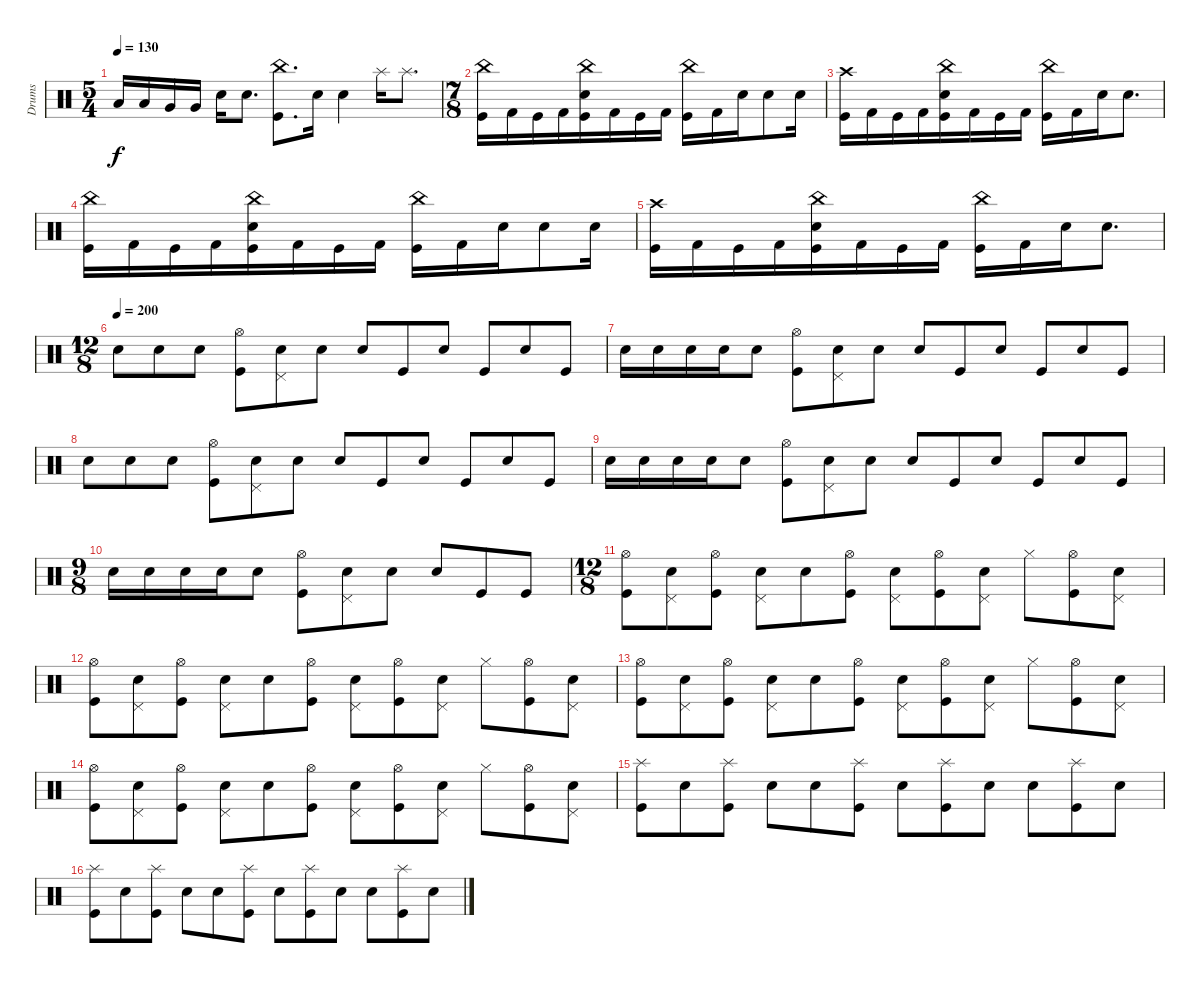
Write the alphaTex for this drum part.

\track ("Drums" "Drums") {instrument percussion}
\staff {score}
\articulation defaults
\ts (5 4)
\tempo 130
\clef neutral
\ks c "Low Tom (hit)".16{dy f} "Low Tom (hit)".16 "Very Low Tom (hit)".16 "Very Low Tom (hit)".16 "Snare (hit) 2".16 "Snare (hit) 2".8{d}
("China (hit)" "Kick (hit)").8{d} "Snare (hit) 2".16 "Snare (hit) 2".4 "Splash (hit)".16 "Splash (hit)".8{d} |
\ts (7 8)
("China (hit)" "Kick (hit)").16 "Kick (hit) 2".16 "Kick (hit)".16 "Kick (hit) 2".16 ("China (hit)" "Kick (hit)" "Snare (hit) 2").16 "Kick (hit) 2".16 "Kick (hit)".16 "Kick (hit) 2".16 ("China (hit)" "Kick (hit)").16 "Kick (hit) 2".16 "Snare (hit) 2".16 "Snare (hit) 2".8 "Snare (hit) 2".16 |
("Crash high (hit)" "Kick (hit)").16 "Kick (hit) 2".16 "Kick (hit)".16 "Kick (hit) 2".16 ("China (hit)" "Kick (hit)" "Snare (hit) 2").16 "Kick (hit) 2".16 "Kick (hit)".16 "Kick (hit) 2".16 ("China (hit)" "Kick (hit)").16 "Kick (hit) 2".16 "Snare (hit) 2".16 "Snare (hit) 2".8{d} |
("China (hit)" "Kick (hit)").16 "Kick (hit) 2".16 "Kick (hit)".16 "Kick (hit) 2".16 ("China (hit)" "Kick (hit)" "Snare (hit) 2").16 "Kick (hit) 2".16 "Kick (hit)".16 "Kick (hit) 2".16 ("China (hit)" "Kick (hit)").16 "Kick (hit) 2".16 "Snare (hit) 2".16 "Snare (hit) 2".8 "Snare (hit) 2".16 |
("Crash high (hit)" "Kick (hit)").16 "Kick (hit) 2".16 "Kick (hit)".16 "Kick (hit) 2".16 ("China (hit)" "Kick (hit)" "Snare (hit) 2").16 "Kick (hit) 2".16 "Kick (hit)".16 "Kick (hit) 2".16 ("China (hit)" "Kick (hit)").16 "Kick (hit) 2".16 "Snare (hit) 2".16 "Snare (hit) 2".8{d} |
\ts (12 8)
\tempo (200)
"Snare (hit) 2".8 "Snare (hit) 2".8 "Snare (hit) 2".8 ("Hi-Hat (open)" "Kick (hit)").8 ("Snare (hit) 2" "Pedal Hi-Hat (hit)").8 "Snare (hit) 2".8 "Electric Snare (hit)".8 "Kick (hit)".8 "Electric Snare (hit)".8 "Kick (hit)".8 "Electric Snare (hit)".8 "Kick (hit)".8 |
"Snare (hit) 2".16 "Snare (hit) 2".16 "Snare (hit) 2".16 "Snare (hit) 2".16 "Snare (hit) 2".8 ("Hi-Hat (open)" "Kick (hit)").8 ("Snare (hit) 2" "Pedal Hi-Hat (hit)").8 "Snare (hit) 2".8 "Electric Snare (hit)".8 "Kick (hit)".8 "Electric Snare (hit)".8 "Kick (hit)".8 "Electric Snare (hit)".8 "Kick (hit)".8 |
"Snare (hit) 2".8 "Snare (hit) 2".8 "Snare (hit) 2".8 ("Hi-Hat (open)" "Kick (hit)").8 ("Snare (hit) 2" "Pedal Hi-Hat (hit)").8 "Snare (hit) 2".8 "Electric Snare (hit)".8 "Kick (hit)".8 "Electric Snare (hit)".8 "Kick (hit)".8 "Electric Snare (hit)".8 "Kick (hit)".8 |
"Snare (hit) 2".16 "Snare (hit) 2".16 "Snare (hit) 2".16 "Snare (hit) 2".16 "Snare (hit) 2".8 ("Hi-Hat (open)" "Kick (hit)").8 ("Snare (hit) 2" "Pedal Hi-Hat (hit)").8 "Snare (hit) 2".8 "Electric Snare (hit)".8 "Kick (hit)".8 "Electric Snare (hit)".8 "Kick (hit)".8 "Electric Snare (hit)".8 "Kick (hit)".8 |
\ts (9 8)
"Snare (hit) 2".16 "Snare (hit) 2".16 "Snare (hit) 2".16 "Snare (hit) 2".16 "Snare (hit) 2".8 ("Hi-Hat (open)" "Kick (hit)").8 ("Snare (hit) 2" "Pedal Hi-Hat (hit)").8 "Snare (hit) 2".8 "Electric Snare (hit)".8 "Kick (hit)".8 "Kick (hit)".8 |
\ts (12 8)
("Hi-Hat (open)" "Kick (hit)").8 ("Electric Snare (hit)" "Pedal Hi-Hat (hit)").8 ("Hi-Hat (open)" "Kick (hit)").8 ("Electric Snare (hit)" "Pedal Hi-Hat (hit)").8 "Electric Snare (hit)".8 ("Hi-Hat (open)" "Kick (hit)").8 ("Electric Snare (hit)" "Pedal Hi-Hat (hit)").8 ("Hi-Hat (open)" "Kick (hit)").8 ("Electric Snare (hit)" "Pedal Hi-Hat (hit)").8 "Hi-Hat (closed)".8 ("Hi-Hat (open)" "Kick (hit)").8 ("Electric Snare (hit)" "Pedal Hi-Hat (hit)").8 |
("Hi-Hat (open)" "Kick (hit)").8 ("Electric Snare (hit)" "Pedal Hi-Hat (hit)").8 ("Hi-Hat (open)" "Kick (hit)").8 ("Electric Snare (hit)" "Pedal Hi-Hat (hit)").8 "Electric Snare (hit)".8 ("Hi-Hat (open)" "Kick (hit)").8 ("Electric Snare (hit)" "Pedal Hi-Hat (hit)").8 ("Hi-Hat (open)" "Kick (hit)").8 ("Electric Snare (hit)" "Pedal Hi-Hat (hit)").8 "Hi-Hat (closed)".8 ("Hi-Hat (open)" "Kick (hit)").8 ("Electric Snare (hit)" "Pedal Hi-Hat (hit)").8 |
("Hi-Hat (open)" "Kick (hit)").8 ("Electric Snare (hit)" "Pedal Hi-Hat (hit)").8 ("Hi-Hat (open)" "Kick (hit)").8 ("Electric Snare (hit)" "Pedal Hi-Hat (hit)").8 "Electric Snare (hit)".8 ("Hi-Hat (open)" "Kick (hit)").8 ("Electric Snare (hit)" "Pedal Hi-Hat (hit)").8 ("Hi-Hat (open)" "Kick (hit)").8 ("Electric Snare (hit)" "Pedal Hi-Hat (hit)").8 "Hi-Hat (closed)".8 ("Hi-Hat (open)" "Kick (hit)").8 ("Electric Snare (hit)" "Pedal Hi-Hat (hit)").8 |
("Hi-Hat (open)" "Kick (hit)").8 ("Electric Snare (hit)" "Pedal Hi-Hat (hit)").8 ("Hi-Hat (open)" "Kick (hit)").8 ("Electric Snare (hit)" "Pedal Hi-Hat (hit)").8 "Electric Snare (hit)".8 ("Hi-Hat (open)" "Kick (hit)").8 ("Electric Snare (hit)" "Pedal Hi-Hat (hit)").8 ("Hi-Hat (open)" "Kick (hit)").8 ("Electric Snare (hit)" "Pedal Hi-Hat (hit)").8 "Hi-Hat (closed)".8 ("Hi-Hat (open)" "Kick (hit)").8 ("Electric Snare (hit)" "Pedal Hi-Hat (hit)").8 |
("Splash (hit)" "Kick (hit)").8 "Electric Snare (hit)".8 ("Splash (hit)" "Kick (hit)").8 "Electric Snare (hit)".8 "Electric Snare (hit)".8 ("Splash (hit)" "Kick (hit)").8 "Electric Snare (hit)".8 ("Splash (hit)" "Kick (hit)").8 "Electric Snare (hit)".8 "Electric Snare (hit)".8 ("Splash (hit)" "Kick (hit)").8 "Electric Snare (hit)".8 |
("Splash (hit)" "Kick (hit)").8 "Electric Snare (hit)".8 ("Splash (hit)" "Kick (hit)").8 "Electric Snare (hit)".8 "Electric Snare (hit)".8 ("Splash (hit)" "Kick (hit)").8 "Electric Snare (hit)".8 ("Splash (hit)" "Kick (hit)").8 "Electric Snare (hit)".8 "Electric Snare (hit)".8 ("Splash (hit)" "Kick (hit)").8 "Electric Snare (hit)".8
